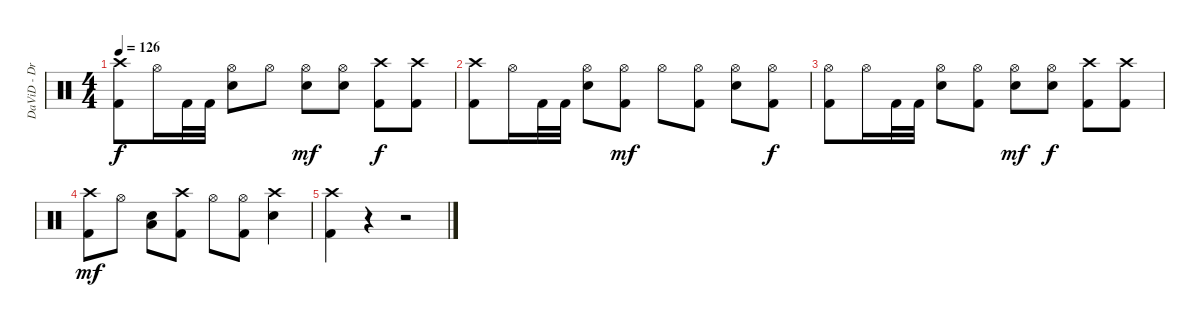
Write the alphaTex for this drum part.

\track ("DaViD - DruMzZ" "DaViD - Dr") {instrument percussion}
\staff {score}
\articulation defaults
\ts (4 4)
\tempo 126
\clef neutral
\ks c
("Crash high (hit)" "Kick (hit) 2").8{dy f} "Hi-Hat (open)".16 "Kick (hit) 2".32 "Kick (hit) 2".32 ("Hi-Hat (open)" "Snare (hit) 2").8 "Hi-Hat (open)".8 ("Hi-Hat (open)" "Snare (hit) 2").8{dy mf} ("Hi-Hat (open)" "Snare (hit) 2").8 ("Crash high (hit)" "Kick (hit) 2").8{dy f} ("Crash high (hit)" "Kick (hit) 2").8 |
("Crash high (hit)" "Kick (hit) 2").8 "Hi-Hat (open)".16 "Kick (hit) 2".32 "Kick (hit) 2".32 ("Hi-Hat (open)" "Snare (hit) 2").8 ("Hi-Hat (open)" "Kick (hit) 2").8{dy mf} "Hi-Hat (open)".8 ("Hi-Hat (open)" "Kick (hit) 2").8 ("Hi-Hat (open)" "Snare (hit) 2").8 ("Hi-Hat (open)" "Kick (hit) 2").8{dy f} |
("Hi-Hat (open)" "Kick (hit) 2").8 "Hi-Hat (open)".16 "Kick (hit) 2".32 "Kick (hit) 2".32 ("Hi-Hat (open)" "Snare (hit) 2").8 ("Hi-Hat (open)" "Kick (hit) 2").8 ("Hi-Hat (open)" "Snare (hit) 2").8{dy mf} ("Hi-Hat (open)" "Snare (hit) 2").8{dy f} ("Crash high (hit)" "Kick (hit) 2").8 ("Crash high (hit)" "Kick (hit) 2").8 |
("Crash high (hit)" "Kick (hit) 2").8{dy mf} "Hi-Hat (open)".8 ("Snare (hit) 2" "Low Floor Tom (hit)").8 ("Crash high (hit)" "Kick (hit) 2").8 "Hi-Hat (open)".8 ("Hi-Hat (open)" "Kick (hit) 2").8 ("Crash high (hit)" "Snare (hit) 2").4 |
("Crash high (hit)" "Kick (hit) 2").4 r.4 r.2
